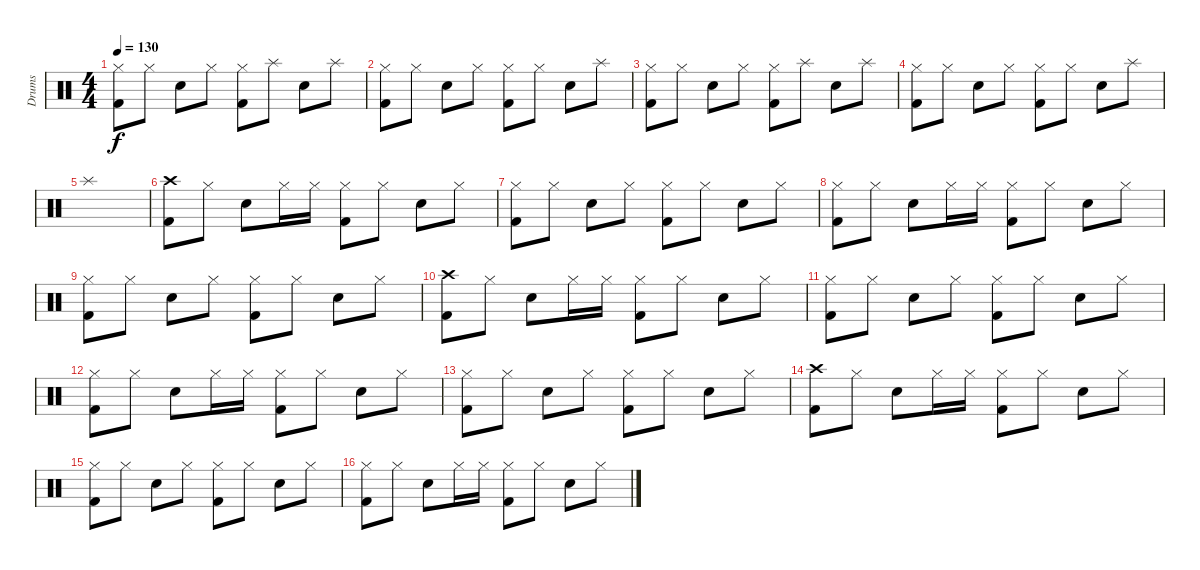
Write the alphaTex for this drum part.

\track ("Drums" "Drums") {instrument percussion}
\staff {score}
\articulation defaults
\ts (4 4)
\tempo 130
\clef neutral
\ks c
("Hi-Hat (closed)" "Kick (hit) 2").8{dy f} "Hi-Hat (closed)".8 "Snare (hit) 2".8 "Hi-Hat (closed)".8 ("Hi-Hat (closed)" "Kick (hit) 2").8 "Splash (hit)".8 "Snare (hit) 2".8 "Splash (hit)".8 |
("Hi-Hat (closed)" "Kick (hit) 2").8 "Hi-Hat (closed)".8 "Snare (hit) 2".8 "Hi-Hat (closed)".8 ("Hi-Hat (closed)" "Kick (hit) 2").8 "Hi-Hat (closed)".8 "Snare (hit) 2".8 "Splash (hit)".8 |
("Hi-Hat (closed)" "Kick (hit) 2").8 "Hi-Hat (closed)".8 "Snare (hit) 2".8 "Hi-Hat (closed)".8 ("Hi-Hat (closed)" "Kick (hit) 2").8 "Splash (hit)".8 "Snare (hit) 2".8 "Splash (hit)".8 |
("Hi-Hat (closed)" "Kick (hit) 2").8 "Hi-Hat (closed)".8 "Snare (hit) 2".8 "Hi-Hat (closed)".8 ("Hi-Hat (closed)" "Kick (hit) 2").8 "Hi-Hat (closed)".8 "Snare (hit) 2".8 "Splash (hit)".8 |
"Splash (hit)".1 |
("Crash high (hit)" "Kick (hit) 2").8 "Hi-Hat (closed)".8 "Snare (hit) 2".8 "Hi-Hat (closed)".16 "Hi-Hat (closed)".16 ("Hi-Hat (closed)" "Kick (hit) 2").8 "Hi-Hat (closed)".8 "Snare (hit) 2".8 "Hi-Hat (closed)".8 |
("Hi-Hat (closed)" "Kick (hit) 2").8 "Hi-Hat (closed)".8 "Snare (hit) 2".8 "Hi-Hat (closed)".8 ("Hi-Hat (closed)" "Kick (hit) 2").8 "Hi-Hat (closed)".8 "Snare (hit) 2".8 "Hi-Hat (closed)".8 |
("Hi-Hat (closed)" "Kick (hit) 2").8 "Hi-Hat (closed)".8 "Snare (hit) 2".8 "Hi-Hat (closed)".16 "Hi-Hat (closed)".16 ("Hi-Hat (closed)" "Kick (hit) 2").8 "Hi-Hat (closed)".8 "Snare (hit) 2".8 "Hi-Hat (closed)".8 |
("Hi-Hat (closed)" "Kick (hit) 2").8 "Hi-Hat (closed)".8 "Snare (hit) 2".8 "Hi-Hat (closed)".8 ("Hi-Hat (closed)" "Kick (hit) 2").8 "Hi-Hat (closed)".8 "Snare (hit) 2".8 "Hi-Hat (closed)".8 |
("Crash high (hit)" "Kick (hit) 2").8 "Hi-Hat (closed)".8 "Snare (hit) 2".8 "Hi-Hat (closed)".16 "Hi-Hat (closed)".16 ("Hi-Hat (closed)" "Kick (hit) 2").8 "Hi-Hat (closed)".8 "Snare (hit) 2".8 "Hi-Hat (closed)".8 |
("Hi-Hat (closed)" "Kick (hit) 2").8 "Hi-Hat (closed)".8 "Snare (hit) 2".8 "Hi-Hat (closed)".8 ("Hi-Hat (closed)" "Kick (hit) 2").8 "Hi-Hat (closed)".8 "Snare (hit) 2".8 "Hi-Hat (closed)".8 |
("Hi-Hat (closed)" "Kick (hit) 2").8 "Hi-Hat (closed)".8 "Snare (hit) 2".8 "Hi-Hat (closed)".16 "Hi-Hat (closed)".16 ("Hi-Hat (closed)" "Kick (hit) 2").8 "Hi-Hat (closed)".8 "Snare (hit) 2".8 "Hi-Hat (closed)".8 |
("Hi-Hat (closed)" "Kick (hit) 2").8 "Hi-Hat (closed)".8 "Snare (hit) 2".8 "Hi-Hat (closed)".8 ("Hi-Hat (closed)" "Kick (hit) 2").8 "Hi-Hat (closed)".8 "Snare (hit) 2".8 "Hi-Hat (closed)".8 |
("Crash high (hit)" "Kick (hit) 2").8 "Hi-Hat (closed)".8 "Snare (hit) 2".8 "Hi-Hat (closed)".16 "Hi-Hat (closed)".16 ("Hi-Hat (closed)" "Kick (hit) 2").8 "Hi-Hat (closed)".8 "Snare (hit) 2".8 "Hi-Hat (closed)".8 |
("Hi-Hat (closed)" "Kick (hit) 2").8 "Hi-Hat (closed)".8 "Snare (hit) 2".8 "Hi-Hat (closed)".8 ("Hi-Hat (closed)" "Kick (hit) 2").8 "Hi-Hat (closed)".8 "Snare (hit) 2".8 "Hi-Hat (closed)".8 |
("Hi-Hat (closed)" "Kick (hit) 2").8 "Hi-Hat (closed)".8 "Snare (hit) 2".8 "Hi-Hat (closed)".16 "Hi-Hat (closed)".16 ("Hi-Hat (closed)" "Kick (hit) 2").8 "Hi-Hat (closed)".8 "Snare (hit) 2".8 "Hi-Hat (closed)".8
